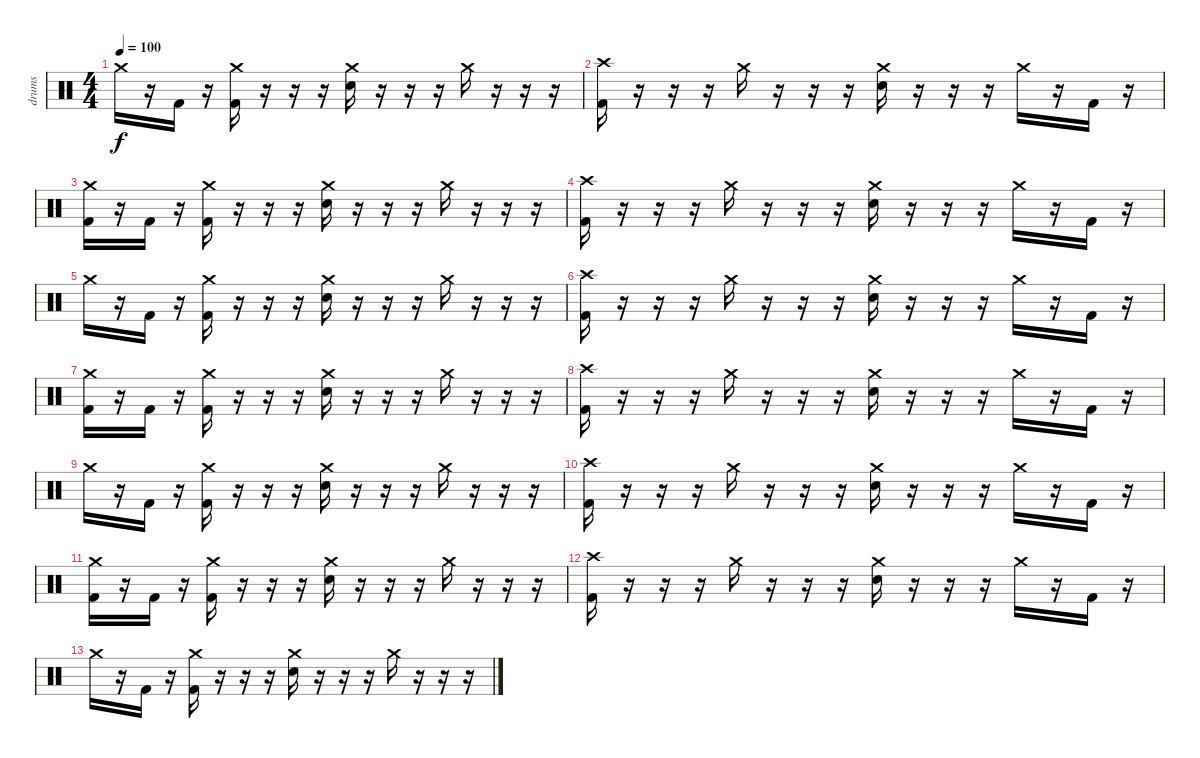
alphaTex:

\track ("drums" "drums") {instrument percussion}
\staff {score}
\articulation defaults
\ts (4 4)
\tempo 100
\clef neutral
\ks c "Crash medium (hit)".16{dy f}
r.16 "Kick (hit) 2".16 r.16 ("Crash medium (hit)" "Kick (hit) 2").16 r.16 r.16 r.16 ("Crash medium (hit)" "Snare (hit) 2").16 r.16 r.16 r.16 "Crash medium (hit)".16 r.16 r.16 r.16 |
("Crash high (hit)" "Kick (hit) 2").16 r.16 r.16 r.16 "Crash medium (hit)".16 r.16 r.16 r.16 ("Crash medium (hit)" "Snare (hit) 2").16 r.16 r.16 r.16 "Crash medium (hit)".16 r.16 "Kick (hit) 2".16 r.16 |
("Crash medium (hit)" "Kick (hit) 2").16 r.16 "Kick (hit) 2".16 r.16 ("Crash medium (hit)" "Kick (hit) 2").16 r.16 r.16 r.16 ("Crash medium (hit)" "Snare (hit) 2").16 r.16 r.16 r.16 "Crash medium (hit)".16 r.16 r.16 r.16 |
("Crash high (hit)" "Kick (hit) 2").16 r.16 r.16 r.16 "Crash medium (hit)".16 r.16 r.16 r.16 ("Crash medium (hit)" "Snare (hit) 2").16 r.16 r.16 r.16 "Crash medium (hit)".16 r.16 "Kick (hit) 2".16 r.16 |
"Crash medium (hit)".16 r.16 "Kick (hit) 2".16 r.16 ("Crash medium (hit)" "Kick (hit) 2").16 r.16 r.16 r.16 ("Crash medium (hit)" "Snare (hit) 2").16 r.16 r.16 r.16 "Crash medium (hit)".16 r.16 r.16 r.16 |
("Crash high (hit)" "Kick (hit) 2").16 r.16 r.16 r.16 "Crash medium (hit)".16 r.16 r.16 r.16 ("Crash medium (hit)" "Snare (hit) 2").16 r.16 r.16 r.16 "Crash medium (hit)".16 r.16 "Kick (hit) 2".16 r.16 |
("Crash medium (hit)" "Kick (hit) 2").16 r.16 "Kick (hit) 2".16 r.16 ("Crash medium (hit)" "Kick (hit) 2").16 r.16 r.16 r.16 ("Crash medium (hit)" "Snare (hit) 2").16 r.16 r.16 r.16 "Crash medium (hit)".16 r.16 r.16 r.16 |
("Crash high (hit)" "Kick (hit) 2").16 r.16 r.16 r.16 "Crash medium (hit)".16 r.16 r.16 r.16 ("Crash medium (hit)" "Snare (hit) 2").16 r.16 r.16 r.16 "Crash medium (hit)".16 r.16 "Kick (hit) 2".16 r.16 |
"Crash medium (hit)".16 r.16 "Kick (hit) 2".16 r.16 ("Crash medium (hit)" "Kick (hit) 2").16 r.16 r.16 r.16 ("Crash medium (hit)" "Snare (hit) 2").16 r.16 r.16 r.16 "Crash medium (hit)".16 r.16 r.16 r.16 |
("Crash high (hit)" "Kick (hit) 2").16 r.16 r.16 r.16 "Crash medium (hit)".16 r.16 r.16 r.16 ("Crash medium (hit)" "Snare (hit) 2").16 r.16 r.16 r.16 "Crash medium (hit)".16 r.16 "Kick (hit) 2".16 r.16 |
("Crash medium (hit)" "Kick (hit) 2").16 r.16 "Kick (hit) 2".16 r.16 ("Crash medium (hit)" "Kick (hit) 2").16 r.16 r.16 r.16 ("Crash medium (hit)" "Snare (hit) 2").16 r.16 r.16 r.16 "Crash medium (hit)".16 r.16 r.16 r.16 |
("Crash high (hit)" "Kick (hit) 2").16 r.16 r.16 r.16 "Crash medium (hit)".16 r.16 r.16 r.16 ("Crash medium (hit)" "Snare (hit) 2").16 r.16 r.16 r.16 "Crash medium (hit)".16 r.16 "Kick (hit) 2".16 r.16 |
"Crash medium (hit)".16 r.16 "Kick (hit) 2".16 r.16 ("Crash medium (hit)" "Kick (hit) 2").16 r.16 r.16 r.16 ("Crash medium (hit)" "Snare (hit) 2").16 r.16 r.16 r.16 "Crash medium (hit)".16 r.16 r.16 r.16
